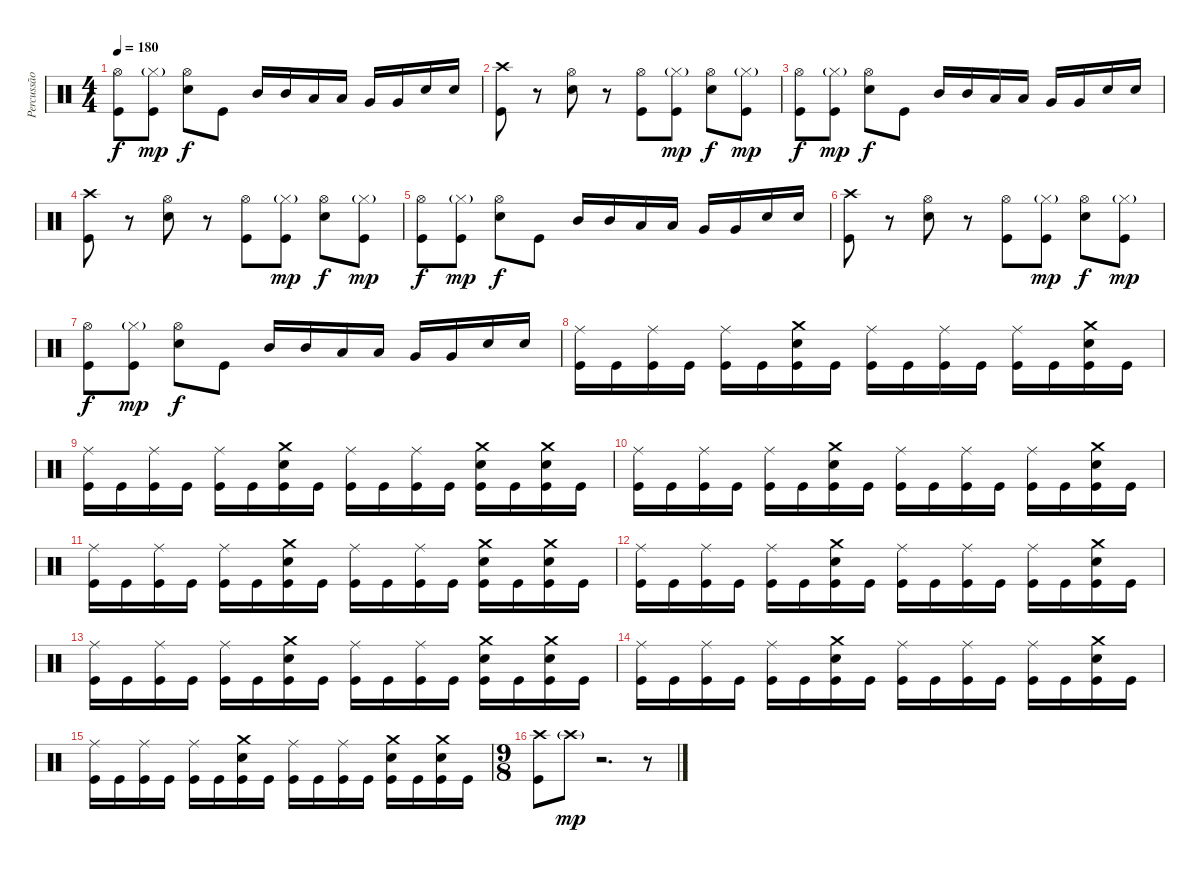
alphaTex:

\track ("Percussão" "Percussão") {mute instrument percussion}
\staff {score}
\articulation defaults
\ts (4 4)
\tempo 180
\clef neutral
\ks c
("Hi-Hat (open)" "Kick (hit)").8{dy f} ("Hi-Hat (closed)"{g} "Kick (hit)").8{dy mp} ("Hi-Hat (open)" "Electric Snare (hit)").8{dy f} "Kick (hit)".8 "Mid Tom (hit)".16 "Mid Tom (hit)".16 "Low Tom (hit)".16 "Low Tom (hit)".16 "Very Low Tom (hit)".16 "Very Low Tom (hit)".16 "Electric Snare (hit)".16 "Electric Snare (hit)".16 |
("Crash high (hit)" "Kick (hit)").8 r.8 ("Hi-Hat (open)" "Electric Snare (hit)").8 r.8 ("Hi-Hat (open)" "Kick (hit)").8 ("Hi-Hat (closed)"{g} "Kick (hit)").8{dy mp} ("Hi-Hat (open)" "Electric Snare (hit)").8{dy f} ("Hi-Hat (closed)"{g} "Kick (hit)").8{dy mp} |
("Hi-Hat (open)" "Kick (hit)").8{dy f} ("Hi-Hat (closed)"{g} "Kick (hit)").8{dy mp} ("Hi-Hat (open)" "Electric Snare (hit)").8{dy f} "Kick (hit)".8 "Mid Tom (hit)".16 "Mid Tom (hit)".16 "Low Tom (hit)".16 "Low Tom (hit)".16 "Very Low Tom (hit)".16 "Very Low Tom (hit)".16 "Electric Snare (hit)".16 "Electric Snare (hit)".16 |
("Crash high (hit)" "Kick (hit)").8 r.8 ("Hi-Hat (open)" "Electric Snare (hit)").8 r.8 ("Hi-Hat (open)" "Kick (hit)").8 ("Hi-Hat (closed)"{g} "Kick (hit)").8{dy mp} ("Hi-Hat (open)" "Electric Snare (hit)").8{dy f} ("Hi-Hat (closed)"{g} "Kick (hit)").8{dy mp} |
("Hi-Hat (open)" "Kick (hit)").8{dy f} ("Hi-Hat (closed)"{g} "Kick (hit)").8{dy mp} ("Hi-Hat (open)" "Electric Snare (hit)").8{dy f} "Kick (hit)".8 "Mid Tom (hit)".16 "Mid Tom (hit)".16 "Low Tom (hit)".16 "Low Tom (hit)".16 "Very Low Tom (hit)".16 "Very Low Tom (hit)".16 "Electric Snare (hit)".16 "Electric Snare (hit)".16 |
("Crash high (hit)" "Kick (hit)").8 r.8 ("Hi-Hat (open)" "Electric Snare (hit)").8 r.8 ("Hi-Hat (open)" "Kick (hit)").8 ("Hi-Hat (closed)"{g} "Kick (hit)").8{dy mp} ("Hi-Hat (open)" "Electric Snare (hit)").8{dy f} ("Hi-Hat (closed)"{g} "Kick (hit)").8{dy mp} |
("Hi-Hat (open)" "Kick (hit)").8{dy f} ("Hi-Hat (closed)"{g} "Kick (hit)").8{dy mp} ("Hi-Hat (open)" "Electric Snare (hit)").8{dy f} "Kick (hit)".8 "Mid Tom (hit)".16 "Mid Tom (hit)".16 "Low Tom (hit)".16 "Low Tom (hit)".16 "Very Low Tom (hit)".16 "Very Low Tom (hit)".16 "Electric Snare (hit)".16 "Electric Snare (hit)".16 |
("Ride (middle)" "Kick (hit)").16 "Kick (hit)".16 ("Ride (middle)" "Kick (hit)").16 "Kick (hit)".16 ("Ride (middle)" "Kick (hit)").16 "Kick (hit)".16 ("Crash medium (hit)" "Electric Snare (hit)" "Kick (hit)").16 "Kick (hit)".16 ("Ride (middle)" "Kick (hit)").16 "Kick (hit)".16 ("Ride (middle)" "Kick (hit)").16 "Kick (hit)".16 ("Ride (middle)" "Kick (hit)").16 "Kick (hit)".16 ("Crash medium (hit)" "Electric Snare (hit)" "Kick (hit)").16 "Kick (hit)".16 |
("Ride (middle)" "Kick (hit)").16 "Kick (hit)".16 ("Ride (middle)" "Kick (hit)").16 "Kick (hit)".16 ("Ride (middle)" "Kick (hit)").16 "Kick (hit)".16 ("Crash medium (hit)" "Electric Snare (hit)" "Kick (hit)").16 "Kick (hit)".16 ("Ride (middle)" "Kick (hit)").16 "Kick (hit)".16 ("Ride (middle)" "Kick (hit)").16 "Kick (hit)".16 ("Crash medium (hit)" "Electric Snare (hit)" "Kick (hit)").16 "Kick (hit)".16 ("Crash medium (hit)" "Electric Snare (hit)" "Kick (hit)").16 "Kick (hit)".16 |
("Ride (middle)" "Kick (hit)").16 "Kick (hit)".16 ("Ride (middle)" "Kick (hit)").16 "Kick (hit)".16 ("Ride (middle)" "Kick (hit)").16 "Kick (hit)".16 ("Crash medium (hit)" "Electric Snare (hit)" "Kick (hit)").16 "Kick (hit)".16 ("Ride (middle)" "Kick (hit)").16 "Kick (hit)".16 ("Ride (middle)" "Kick (hit)").16 "Kick (hit)".16 ("Ride (middle)" "Kick (hit)").16 "Kick (hit)".16 ("Crash medium (hit)" "Electric Snare (hit)" "Kick (hit)").16 "Kick (hit)".16 |
("Ride (middle)" "Kick (hit)").16 "Kick (hit)".16 ("Ride (middle)" "Kick (hit)").16 "Kick (hit)".16 ("Ride (middle)" "Kick (hit)").16 "Kick (hit)".16 ("Crash medium (hit)" "Electric Snare (hit)" "Kick (hit)").16 "Kick (hit)".16 ("Ride (middle)" "Kick (hit)").16 "Kick (hit)".16 ("Ride (middle)" "Kick (hit)").16 "Kick (hit)".16 ("Crash medium (hit)" "Electric Snare (hit)" "Kick (hit)").16 "Kick (hit)".16 ("Crash medium (hit)" "Electric Snare (hit)" "Kick (hit)").16 "Kick (hit)".16 |
("Ride (middle)" "Kick (hit)").16 "Kick (hit)".16 ("Ride (middle)" "Kick (hit)").16 "Kick (hit)".16 ("Ride (middle)" "Kick (hit)").16 "Kick (hit)".16 ("Crash medium (hit)" "Electric Snare (hit)" "Kick (hit)").16 "Kick (hit)".16 ("Ride (middle)" "Kick (hit)").16 "Kick (hit)".16 ("Ride (middle)" "Kick (hit)").16 "Kick (hit)".16 ("Ride (middle)" "Kick (hit)").16 "Kick (hit)".16 ("Crash medium (hit)" "Electric Snare (hit)" "Kick (hit)").16 "Kick (hit)".16 |
("Ride (middle)" "Kick (hit)").16 "Kick (hit)".16 ("Ride (middle)" "Kick (hit)").16 "Kick (hit)".16 ("Ride (middle)" "Kick (hit)").16 "Kick (hit)".16 ("Crash medium (hit)" "Electric Snare (hit)" "Kick (hit)").16 "Kick (hit)".16 ("Ride (middle)" "Kick (hit)").16 "Kick (hit)".16 ("Ride (middle)" "Kick (hit)").16 "Kick (hit)".16 ("Crash medium (hit)" "Electric Snare (hit)" "Kick (hit)").16 "Kick (hit)".16 ("Crash medium (hit)" "Electric Snare (hit)" "Kick (hit)").16 "Kick (hit)".16 |
("Ride (middle)" "Kick (hit)").16 "Kick (hit)".16 ("Ride (middle)" "Kick (hit)").16 "Kick (hit)".16 ("Ride (middle)" "Kick (hit)").16 "Kick (hit)".16 ("Crash medium (hit)" "Electric Snare (hit)" "Kick (hit)").16 "Kick (hit)".16 ("Ride (middle)" "Kick (hit)").16 "Kick (hit)".16 ("Ride (middle)" "Kick (hit)").16 "Kick (hit)".16 ("Ride (middle)" "Kick (hit)").16 "Kick (hit)".16 ("Crash medium (hit)" "Electric Snare (hit)" "Kick (hit)").16 "Kick (hit)".16 |
("Ride (middle)" "Kick (hit)").16 "Kick (hit)".16 ("Ride (middle)" "Kick (hit)").16 "Kick (hit)".16 ("Ride (middle)" "Kick (hit)").16 "Kick (hit)".16 ("Crash medium (hit)" "Electric Snare (hit)" "Kick (hit)").16 "Kick (hit)".16 ("Ride (middle)" "Kick (hit)").16 "Kick (hit)".16 ("Ride (middle)" "Kick (hit)").16 "Kick (hit)".16 ("Crash medium (hit)" "Electric Snare (hit)" "Kick (hit)").16 "Kick (hit)".16 ("Crash medium (hit)" "Electric Snare (hit)" "Kick (hit)").16 "Kick (hit)".16 |
\ts (9 8)
("Crash high (hit)" "Kick (hit)").8 "Crash high (hit)"{g}.8{dy mp} r.2{d} r.8
